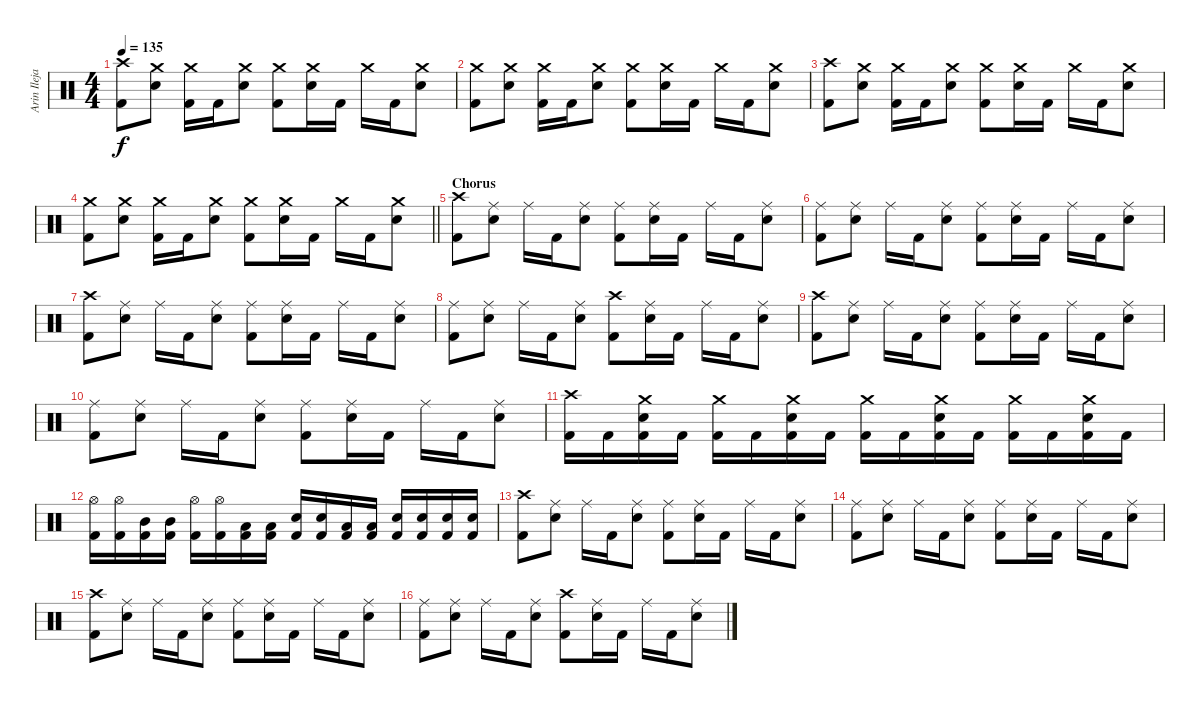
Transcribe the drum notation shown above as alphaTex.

\track ("Arin Ilejay" "Arin Ileja") {instrument percussion}
\staff {score}
\articulation defaults
\ts (4 4)
\tempo 135
\clef neutral
\ks c
("Crash high (hit)" "Kick (hit) 2").8{dy f} ("Crash medium (hit)" "Electric Snare (hit)").8 ("Crash medium (hit)" "Kick (hit) 2").16 "Kick (hit) 2".16 ("Crash medium (hit)" "Electric Snare (hit)").8 ("Crash medium (hit)" "Kick (hit) 2").8 ("Crash medium (hit)" "Electric Snare (hit)").16 "Kick (hit) 2".16 "Crash medium (hit)".16 "Kick (hit) 2".16 ("Crash medium (hit)" "Electric Snare (hit)").8 |
("Crash medium (hit)" "Kick (hit) 2").8 ("Crash medium (hit)" "Electric Snare (hit)").8 ("Crash medium (hit)" "Kick (hit) 2").16 "Kick (hit) 2".16 ("Crash medium (hit)" "Electric Snare (hit)").8 ("Crash medium (hit)" "Kick (hit) 2").8 ("Crash medium (hit)" "Electric Snare (hit)").16 "Kick (hit) 2".16 "Crash medium (hit)".16 "Kick (hit) 2".16 ("Crash medium (hit)" "Electric Snare (hit)").8 |
("Crash high (hit)" "Kick (hit) 2").8 ("Crash medium (hit)" "Electric Snare (hit)").8 ("Crash medium (hit)" "Kick (hit) 2").16 "Kick (hit) 2".16 ("Crash medium (hit)" "Electric Snare (hit)").8 ("Crash medium (hit)" "Kick (hit) 2").8 ("Crash medium (hit)" "Electric Snare (hit)").16 "Kick (hit) 2".16 "Crash medium (hit)".16 "Kick (hit) 2".16 ("Crash medium (hit)" "Electric Snare (hit)").8 |
\barLineRight lightlight
("Crash medium (hit)" "Kick (hit) 2").8 ("Crash medium (hit)" "Electric Snare (hit)").8 ("Crash medium (hit)" "Kick (hit) 2").16 "Kick (hit) 2".16 ("Crash medium (hit)" "Electric Snare (hit)").8 ("Crash medium (hit)" "Kick (hit) 2").8 ("Crash medium (hit)" "Electric Snare (hit)").16 "Kick (hit) 2".16 "Crash medium (hit)".16 "Kick (hit) 2".16 ("Crash medium (hit)" "Electric Snare (hit)").8 |
\section ("" "Chorus")
("Crash high (hit)" "Kick (hit) 2").8 ("Ride (middle)" "Electric Snare (hit)").8 "Ride (middle)".16 "Kick (hit) 2".16 ("Ride (middle)" "Electric Snare (hit)").8 ("Ride (middle)" "Kick (hit) 2").8 ("Ride (middle)" "Electric Snare (hit)").16 "Kick (hit) 2".16 "Ride (middle)".16 "Kick (hit) 2".16 ("Ride (middle)" "Electric Snare (hit)").8 |
("Ride (middle)" "Kick (hit) 2").8 ("Ride (middle)" "Electric Snare (hit)").8 "Ride (middle)".16 "Kick (hit) 2".16 ("Ride (middle)" "Electric Snare (hit)").8 ("Ride (middle)" "Kick (hit) 2").8 ("Ride (middle)" "Electric Snare (hit)").16 "Kick (hit) 2".16 "Ride (middle)".16 "Kick (hit) 2".16 ("Ride (middle)" "Electric Snare (hit)").8 |
("Crash high (hit)" "Kick (hit) 2").8 ("Ride (middle)" "Electric Snare (hit)").8 "Ride (middle)".16 "Kick (hit) 2".16 ("Ride (middle)" "Electric Snare (hit)").8 ("Ride (middle)" "Kick (hit) 2").8 ("Ride (middle)" "Electric Snare (hit)").16 "Kick (hit) 2".16 "Ride (middle)".16 "Kick (hit) 2".16 ("Ride (middle)" "Electric Snare (hit)").8 |
("Ride (middle)" "Kick (hit) 2").8 ("Ride (middle)" "Electric Snare (hit)").8 "Ride (middle)".16 "Kick (hit) 2".16 ("Ride (middle)" "Electric Snare (hit)").8 ("Crash high (hit)" "Kick (hit) 2").8 ("Ride (middle)" "Electric Snare (hit)").16 "Kick (hit) 2".16 "Ride (middle)".16 "Kick (hit) 2".16 ("Ride (middle)" "Electric Snare (hit)").8 |
("Crash high (hit)" "Kick (hit) 2").8 ("Ride (middle)" "Electric Snare (hit)").8 "Ride (middle)".16 "Kick (hit) 2".16 ("Ride (middle)" "Electric Snare (hit)").8 ("Ride (middle)" "Kick (hit) 2").8 ("Ride (middle)" "Electric Snare (hit)").16 "Kick (hit) 2".16 "Ride (middle)".16 "Kick (hit) 2".16 ("Ride (middle)" "Electric Snare (hit)").8 |
("Ride (middle)" "Kick (hit) 2").8 ("Ride (middle)" "Electric Snare (hit)").8 "Ride (middle)".16 "Kick (hit) 2".16 ("Ride (middle)" "Electric Snare (hit)").8 ("Ride (middle)" "Kick (hit) 2").8 ("Ride (middle)" "Electric Snare (hit)").16 "Kick (hit) 2".16 "Ride (middle)".16 "Kick (hit) 2".16 ("Ride (middle)" "Electric Snare (hit)").8 |
("Crash high (hit)" "Kick (hit) 2").16 "Kick (hit) 2".16 ("Crash medium (hit)" "Electric Snare (hit)" "Kick (hit) 2").16 "Kick (hit) 2".16 ("Crash medium (hit)" "Kick (hit) 2").16 "Kick (hit) 2".16 ("Crash medium (hit)" "Electric Snare (hit)" "Kick (hit) 2").16 "Kick (hit) 2".16 ("Crash medium (hit)" "Kick (hit) 2").16 "Kick (hit) 2".16 ("Crash medium (hit)" "Electric Snare (hit)" "Kick (hit) 2").16 "Kick (hit) 2".16 ("Crash medium (hit)" "Kick (hit) 2").16 "Kick (hit) 2".16 ("Crash medium (hit)" "Electric Snare (hit)" "Kick (hit) 2").16 "Kick (hit) 2".16 |
("Hi-Hat (open)" "Kick (hit) 2").16 ("Hi-Hat (open)" "Kick (hit) 2").16 ("Mid Tom (hit)" "Kick (hit) 2").16 ("Mid Tom (hit)" "Kick (hit) 2").16 ("Hi-Hat (open)" "Kick (hit) 2").16 ("Hi-Hat (open)" "Kick (hit) 2").16 ("Low Tom (hit)" "Kick (hit) 2").16 ("Low Tom (hit)" "Kick (hit) 2").16 ("Electric Snare (hit)" "Kick (hit) 2").16 ("Electric Snare (hit)" "Kick (hit) 2").16 ("Low Tom (hit)" "Kick (hit) 2").16 ("Low Tom (hit)" "Kick (hit) 2").16 ("Electric Snare (hit)" "Kick (hit) 2").16 ("Electric Snare (hit)" "Kick (hit) 2").16 ("Electric Snare (hit)" "Kick (hit) 2").16 ("Electric Snare (hit)" "Kick (hit) 2").16 |
("Crash high (hit)" "Kick (hit) 2").8 ("Ride (middle)" "Electric Snare (hit)").8 "Ride (middle)".16 "Kick (hit) 2".16 ("Ride (middle)" "Electric Snare (hit)").8 ("Ride (middle)" "Kick (hit) 2").8 ("Ride (middle)" "Electric Snare (hit)").16 "Kick (hit) 2".16 "Ride (middle)".16 "Kick (hit) 2".16 ("Ride (middle)" "Electric Snare (hit)").8 |
("Ride (middle)" "Kick (hit) 2").8 ("Ride (middle)" "Electric Snare (hit)").8 "Ride (middle)".16 "Kick (hit) 2".16 ("Ride (middle)" "Electric Snare (hit)").8 ("Ride (middle)" "Kick (hit) 2").8 ("Ride (middle)" "Electric Snare (hit)").16 "Kick (hit) 2".16 "Ride (middle)".16 "Kick (hit) 2".16 ("Ride (middle)" "Electric Snare (hit)").8 |
("Crash high (hit)" "Kick (hit) 2").8 ("Ride (middle)" "Electric Snare (hit)").8 "Ride (middle)".16 "Kick (hit) 2".16 ("Ride (middle)" "Electric Snare (hit)").8 ("Ride (middle)" "Kick (hit) 2").8 ("Ride (middle)" "Electric Snare (hit)").16 "Kick (hit) 2".16 "Ride (middle)".16 "Kick (hit) 2".16 ("Ride (middle)" "Electric Snare (hit)").8 |
("Ride (middle)" "Kick (hit) 2").8 ("Ride (middle)" "Electric Snare (hit)").8 "Ride (middle)".16 "Kick (hit) 2".16 ("Ride (middle)" "Electric Snare (hit)").8 ("Crash high (hit)" "Kick (hit) 2").8 ("Ride (middle)" "Electric Snare (hit)").16 "Kick (hit) 2".16 "Ride (middle)".16 "Kick (hit) 2".16 ("Ride (middle)" "Electric Snare (hit)").8
